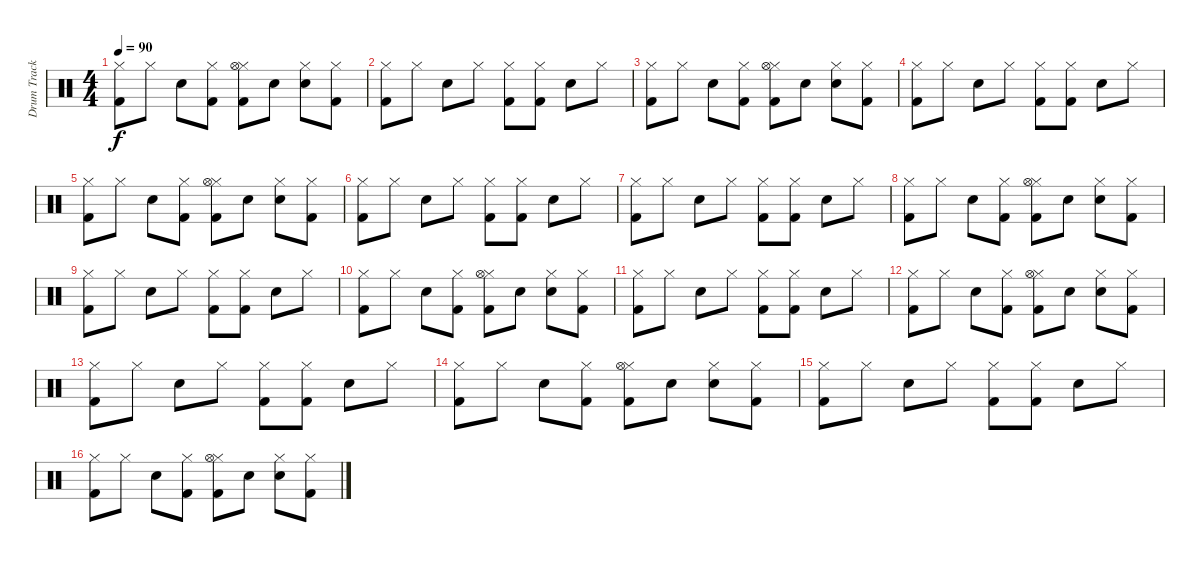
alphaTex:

\track ("Drum Track" "Drum Track") {instrument percussion}
\staff {score}
\articulation defaults
\ts (4 4)
\tempo 90
\clef neutral
\ks c
("Kick (hit) 2" "Hi-Hat (closed)").8{dy f} "Hi-Hat (closed)".8 "Electric Snare (hit)".8 ("Kick (hit) 2" "Hi-Hat (closed)").8 ("Kick (hit) 2" "Hi-Hat (closed)" "Hi-Hat (open)").8 "Electric Snare (hit)".8 ("Snare (hit) 2" "Hi-Hat (closed)").8 ("Kick (hit) 2" "Hi-Hat (closed)").8 |
("Kick (hit) 2" "Hi-Hat (closed)").8 "Hi-Hat (closed)".8 "Electric Snare (hit)".8 "Hi-Hat (closed)".8 ("Kick (hit) 2" "Hi-Hat (closed)").8 ("Kick (hit) 2" "Hi-Hat (closed)").8 "Snare (hit) 2".8 "Hi-Hat (closed)".8 |
("Kick (hit) 2" "Hi-Hat (closed)").8 "Hi-Hat (closed)".8 "Electric Snare (hit)".8 ("Kick (hit) 2" "Hi-Hat (closed)").8 ("Kick (hit) 2" "Hi-Hat (closed)" "Hi-Hat (open)").8 "Electric Snare (hit)".8 ("Snare (hit) 2" "Hi-Hat (closed)").8 ("Kick (hit) 2" "Hi-Hat (closed)").8 |
("Kick (hit) 2" "Hi-Hat (closed)").8 "Hi-Hat (closed)".8 "Electric Snare (hit)".8 "Hi-Hat (closed)".8 ("Kick (hit) 2" "Hi-Hat (closed)").8 ("Kick (hit) 2" "Hi-Hat (closed)").8 "Snare (hit) 2".8 "Hi-Hat (closed)".8 |
("Kick (hit) 2" "Hi-Hat (closed)").8 "Hi-Hat (closed)".8 "Electric Snare (hit)".8 ("Kick (hit) 2" "Hi-Hat (closed)").8 ("Kick (hit) 2" "Hi-Hat (closed)" "Hi-Hat (open)").8 "Electric Snare (hit)".8 ("Snare (hit) 2" "Hi-Hat (closed)").8 ("Kick (hit) 2" "Hi-Hat (closed)").8 |
("Kick (hit) 2" "Hi-Hat (closed)").8 "Hi-Hat (closed)".8 "Electric Snare (hit)".8 "Hi-Hat (closed)".8 ("Kick (hit) 2" "Hi-Hat (closed)").8 ("Kick (hit) 2" "Hi-Hat (closed)").8 "Snare (hit) 2".8 "Hi-Hat (closed)".8 |
("Kick (hit) 2" "Hi-Hat (closed)").8 "Hi-Hat (closed)".8 "Electric Snare (hit)".8 "Hi-Hat (closed)".8 ("Kick (hit) 2" "Hi-Hat (closed)").8 ("Kick (hit) 2" "Hi-Hat (closed)").8 "Snare (hit) 2".8 "Hi-Hat (closed)".8 |
("Kick (hit) 2" "Hi-Hat (closed)").8 "Hi-Hat (closed)".8 "Electric Snare (hit)".8 ("Kick (hit) 2" "Hi-Hat (closed)").8 ("Kick (hit) 2" "Hi-Hat (closed)" "Hi-Hat (open)").8 "Electric Snare (hit)".8 ("Snare (hit) 2" "Hi-Hat (closed)").8 ("Kick (hit) 2" "Hi-Hat (closed)").8 |
("Kick (hit) 2" "Hi-Hat (closed)").8 "Hi-Hat (closed)".8 "Electric Snare (hit)".8 "Hi-Hat (closed)".8 ("Kick (hit) 2" "Hi-Hat (closed)").8 ("Kick (hit) 2" "Hi-Hat (closed)").8 "Snare (hit) 2".8 "Hi-Hat (closed)".8 |
("Kick (hit) 2" "Hi-Hat (closed)").8 "Hi-Hat (closed)".8 "Electric Snare (hit)".8 ("Kick (hit) 2" "Hi-Hat (closed)").8 ("Kick (hit) 2" "Hi-Hat (closed)" "Hi-Hat (open)").8 "Electric Snare (hit)".8 ("Snare (hit) 2" "Hi-Hat (closed)").8 ("Kick (hit) 2" "Hi-Hat (closed)").8 |
("Kick (hit) 2" "Hi-Hat (closed)").8 "Hi-Hat (closed)".8 "Electric Snare (hit)".8 "Hi-Hat (closed)".8 ("Kick (hit) 2" "Hi-Hat (closed)").8 ("Kick (hit) 2" "Hi-Hat (closed)").8 "Snare (hit) 2".8 "Hi-Hat (closed)".8 |
("Kick (hit) 2" "Hi-Hat (closed)").8 "Hi-Hat (closed)".8 "Electric Snare (hit)".8 ("Kick (hit) 2" "Hi-Hat (closed)").8 ("Kick (hit) 2" "Hi-Hat (closed)" "Hi-Hat (open)").8 "Electric Snare (hit)".8 ("Snare (hit) 2" "Hi-Hat (closed)").8 ("Kick (hit) 2" "Hi-Hat (closed)").8 |
("Kick (hit) 2" "Hi-Hat (closed)").8 "Hi-Hat (closed)".8 "Electric Snare (hit)".8 "Hi-Hat (closed)".8 ("Kick (hit) 2" "Hi-Hat (closed)").8 ("Kick (hit) 2" "Hi-Hat (closed)").8 "Snare (hit) 2".8 "Hi-Hat (closed)".8 |
("Kick (hit) 2" "Hi-Hat (closed)").8 "Hi-Hat (closed)".8 "Electric Snare (hit)".8 ("Kick (hit) 2" "Hi-Hat (closed)").8 ("Kick (hit) 2" "Hi-Hat (closed)" "Hi-Hat (open)").8 "Electric Snare (hit)".8 ("Snare (hit) 2" "Hi-Hat (closed)").8 ("Kick (hit) 2" "Hi-Hat (closed)").8 |
("Kick (hit) 2" "Hi-Hat (closed)").8 "Hi-Hat (closed)".8 "Electric Snare (hit)".8 "Hi-Hat (closed)".8 ("Kick (hit) 2" "Hi-Hat (closed)").8 ("Kick (hit) 2" "Hi-Hat (closed)").8 "Snare (hit) 2".8 "Hi-Hat (closed)".8 |
("Kick (hit) 2" "Hi-Hat (closed)").8 "Hi-Hat (closed)".8 "Electric Snare (hit)".8 ("Kick (hit) 2" "Hi-Hat (closed)").8 ("Kick (hit) 2" "Hi-Hat (closed)" "Hi-Hat (open)").8 "Electric Snare (hit)".8 ("Snare (hit) 2" "Hi-Hat (closed)").8 ("Kick (hit) 2" "Hi-Hat (closed)").8
